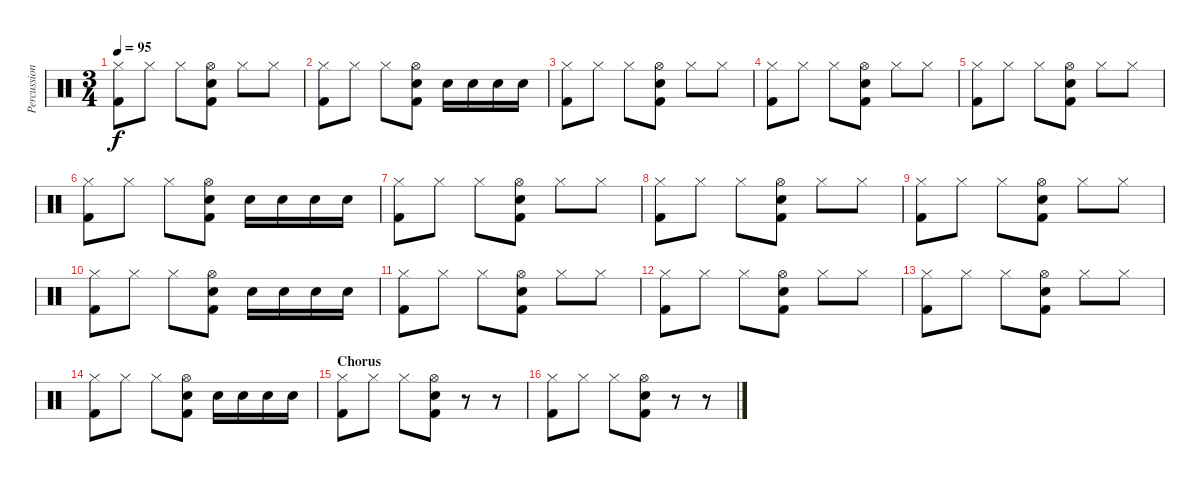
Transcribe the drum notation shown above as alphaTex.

\track ("Percussion" "Percussion") {instrument percussion}
\staff {score}
\articulation defaults
\ts (3 4)
\tempo 95
\clef neutral
\ks c
("Hi-Hat (closed)" "Kick (hit) 2").8{dy f} "Hi-Hat (closed)".8 "Hi-Hat (closed)".8 ("Hi-Hat (open)" "Snare (hit) 2" "Kick (hit) 2").8 "Hi-Hat (closed)".8 "Hi-Hat (closed)".8 |
("Hi-Hat (closed)" "Kick (hit) 2").8 "Hi-Hat (closed)".8 "Hi-Hat (closed)".8 ("Hi-Hat (open)" "Snare (hit) 2" "Kick (hit) 2").8 "Snare (hit) 2".16 "Snare (hit) 2".16 "Snare (hit) 2".16 "Snare (hit) 2".16 |
("Hi-Hat (closed)" "Kick (hit) 2").8 "Hi-Hat (closed)".8 "Hi-Hat (closed)".8 ("Hi-Hat (open)" "Snare (hit) 2" "Kick (hit) 2").8 "Hi-Hat (closed)".8 "Hi-Hat (closed)".8 |
("Hi-Hat (closed)" "Kick (hit) 2").8 "Hi-Hat (closed)".8 "Hi-Hat (closed)".8 ("Hi-Hat (open)" "Snare (hit) 2" "Kick (hit) 2").8 "Hi-Hat (closed)".8 "Hi-Hat (closed)".8 |
("Hi-Hat (closed)" "Kick (hit) 2").8 "Hi-Hat (closed)".8 "Hi-Hat (closed)".8 ("Hi-Hat (open)" "Snare (hit) 2" "Kick (hit) 2").8 "Hi-Hat (closed)".8 "Hi-Hat (closed)".8 |
("Hi-Hat (closed)" "Kick (hit) 2").8 "Hi-Hat (closed)".8 "Hi-Hat (closed)".8 ("Hi-Hat (open)" "Snare (hit) 2" "Kick (hit) 2").8 "Snare (hit) 2".16 "Snare (hit) 2".16 "Snare (hit) 2".16 "Snare (hit) 2".16 |
("Hi-Hat (closed)" "Kick (hit) 2").8{volume 10} "Hi-Hat (closed)".8 "Hi-Hat (closed)".8 ("Hi-Hat (open)" "Snare (hit) 2" "Kick (hit) 2").8 "Hi-Hat (closed)".8 "Hi-Hat (closed)".8 |
("Hi-Hat (closed)" "Kick (hit) 2").8 "Hi-Hat (closed)".8 "Hi-Hat (closed)".8 ("Hi-Hat (open)" "Snare (hit) 2" "Kick (hit) 2").8 "Hi-Hat (closed)".8 "Hi-Hat (closed)".8 |
("Hi-Hat (closed)" "Kick (hit) 2").8 "Hi-Hat (closed)".8 "Hi-Hat (closed)".8 ("Hi-Hat (open)" "Snare (hit) 2" "Kick (hit) 2").8 "Hi-Hat (closed)".8 "Hi-Hat (closed)".8 |
("Hi-Hat (closed)" "Kick (hit) 2").8 "Hi-Hat (closed)".8 "Hi-Hat (closed)".8 ("Hi-Hat (open)" "Snare (hit) 2" "Kick (hit) 2").8 "Snare (hit) 2".16 "Snare (hit) 2".16 "Snare (hit) 2".16 "Snare (hit) 2".16 |
("Hi-Hat (closed)" "Kick (hit) 2").8 "Hi-Hat (closed)".8 "Hi-Hat (closed)".8 ("Hi-Hat (open)" "Snare (hit) 2" "Kick (hit) 2").8 "Hi-Hat (closed)".8 "Hi-Hat (closed)".8 |
("Hi-Hat (closed)" "Kick (hit) 2").8 "Hi-Hat (closed)".8 "Hi-Hat (closed)".8 ("Hi-Hat (open)" "Snare (hit) 2" "Kick (hit) 2").8 "Hi-Hat (closed)".8 "Hi-Hat (closed)".8 |
("Hi-Hat (closed)" "Kick (hit) 2").8 "Hi-Hat (closed)".8 "Hi-Hat (closed)".8 ("Hi-Hat (open)" "Snare (hit) 2" "Kick (hit) 2").8 "Hi-Hat (closed)".8 "Hi-Hat (closed)".8 |
("Hi-Hat (closed)" "Kick (hit) 2").8 "Hi-Hat (closed)".8 "Hi-Hat (closed)".8 ("Hi-Hat (open)" "Snare (hit) 2" "Kick (hit) 2").8 "Snare (hit) 2".16 "Snare (hit) 2".16 "Snare (hit) 2".16 "Snare (hit) 2".16 |
\section ("" "Chorus")
("Hi-Hat (closed)" "Kick (hit) 2").8 "Hi-Hat (closed)".8 "Hi-Hat (closed)".8 ("Hi-Hat (open)" "Snare (hit) 2" "Kick (hit) 2").8 r.8 r.8 |
("Hi-Hat (closed)" "Kick (hit) 2").8 "Hi-Hat (closed)".8 "Hi-Hat (closed)".8 ("Hi-Hat (open)" "Snare (hit) 2" "Kick (hit) 2").8 r.8 r.8
